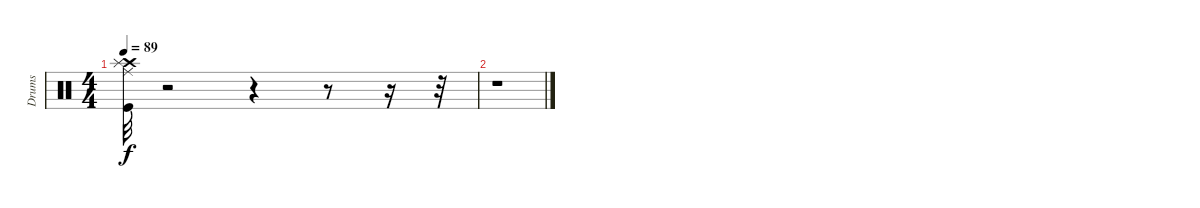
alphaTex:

\track ("Drums" "Drums") {instrument percussion}
\staff {score}
\articulation defaults
\ts (4 4)
\tempo 89
\clef neutral
\ks c
("Crash high (hit)" "Kick (hit)" "Splash (hit)" "Ride (middle)").32{dy f} r.2 r.4 r.8 r.16 r.32 |
r.1
